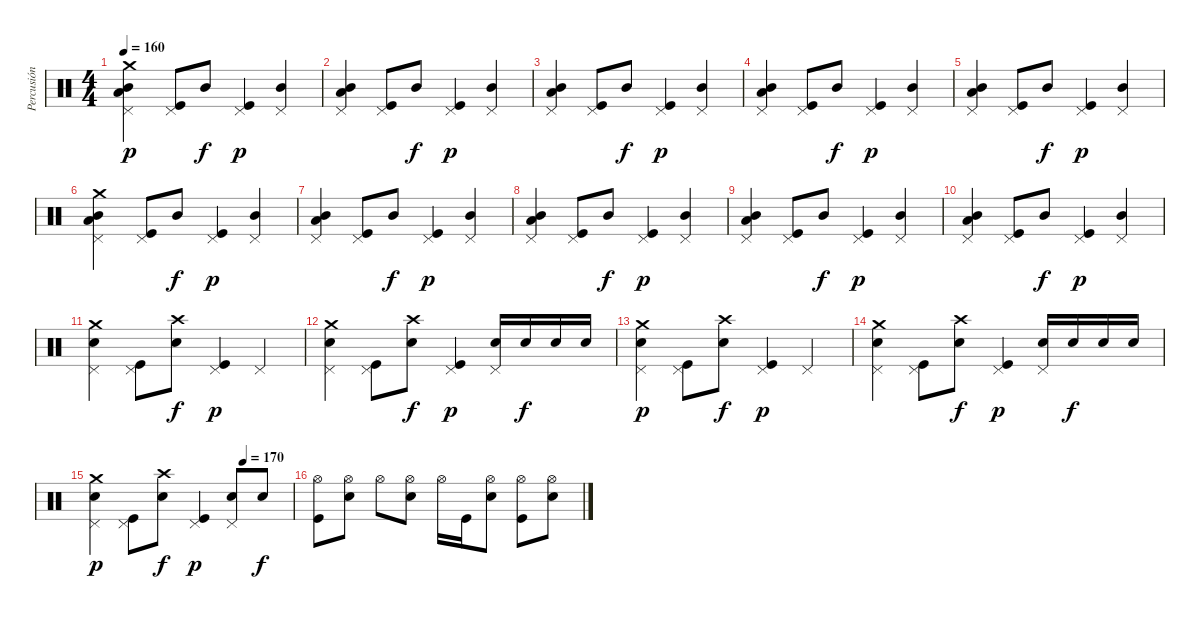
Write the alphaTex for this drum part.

\track ("Percusión" "Percusión") {instrument percussion}
\staff {score}
\articulation defaults
\ts (4 4)
\tempo 160
\clef neutral
\ks c
("Crash medium (hit)" "Pedal Hi-Hat (hit)" "Mid Tom (hit)" "Low Tom (hit)").4{dy p} ("Pedal Hi-Hat (hit)" "Kick (hit)").8 "Mid Tom (hit)".8{dy f} ("Pedal Hi-Hat (hit)" "Kick (hit)").4{dy p} ("Pedal Hi-Hat (hit)" "Mid Tom (hit)").4 |
("Pedal Hi-Hat (hit)" "Mid Tom (hit)" "Low Tom (hit)").4 ("Pedal Hi-Hat (hit)" "Kick (hit)").8 "Mid Tom (hit)".8{dy f} ("Pedal Hi-Hat (hit)" "Kick (hit)").4{dy p} ("Pedal Hi-Hat (hit)" "Mid Tom (hit)").4 |
("Pedal Hi-Hat (hit)" "Mid Tom (hit)" "Low Tom (hit)").4 ("Pedal Hi-Hat (hit)" "Kick (hit)").8 "Mid Tom (hit)".8{dy f} ("Pedal Hi-Hat (hit)" "Kick (hit)").4{dy p} ("Pedal Hi-Hat (hit)" "Mid Tom (hit)").4 |
("Pedal Hi-Hat (hit)" "Mid Tom (hit)" "Low Tom (hit)").4 ("Pedal Hi-Hat (hit)" "Kick (hit)").8 "Mid Tom (hit)".8{dy f} ("Pedal Hi-Hat (hit)" "Kick (hit)").4{dy p} ("Pedal Hi-Hat (hit)" "Mid Tom (hit)").4 |
("Pedal Hi-Hat (hit)" "Mid Tom (hit)" "Low Tom (hit)").4 ("Pedal Hi-Hat (hit)" "Kick (hit)").8 "Mid Tom (hit)".8{dy f} ("Pedal Hi-Hat (hit)" "Kick (hit)").4{dy p} ("Pedal Hi-Hat (hit)" "Mid Tom (hit)").4 |
("Crash medium (hit)" "Pedal Hi-Hat (hit)" "Mid Tom (hit)" "Low Tom (hit)").4 ("Pedal Hi-Hat (hit)" "Kick (hit)").8 "Mid Tom (hit)".8{dy f} ("Pedal Hi-Hat (hit)" "Kick (hit)").4{dy p} ("Pedal Hi-Hat (hit)" "Mid Tom (hit)").4 |
("Pedal Hi-Hat (hit)" "Mid Tom (hit)" "Low Tom (hit)").4 ("Pedal Hi-Hat (hit)" "Kick (hit)").8 "Mid Tom (hit)".8{dy f} ("Pedal Hi-Hat (hit)" "Kick (hit)").4{dy p} ("Pedal Hi-Hat (hit)" "Mid Tom (hit)").4 |
("Pedal Hi-Hat (hit)" "Mid Tom (hit)" "Low Tom (hit)").4 ("Pedal Hi-Hat (hit)" "Kick (hit)").8 "Mid Tom (hit)".8{dy f} ("Pedal Hi-Hat (hit)" "Kick (hit)").4{dy p} ("Pedal Hi-Hat (hit)" "Mid Tom (hit)").4 |
("Pedal Hi-Hat (hit)" "Mid Tom (hit)" "Low Tom (hit)").4 ("Pedal Hi-Hat (hit)" "Kick (hit)").8 "Mid Tom (hit)".8{dy f} ("Pedal Hi-Hat (hit)" "Kick (hit)").4{dy p} ("Pedal Hi-Hat (hit)" "Mid Tom (hit)").4 |
("Pedal Hi-Hat (hit)" "Mid Tom (hit)" "Low Tom (hit)").4 ("Pedal Hi-Hat (hit)" "Kick (hit)").8 "Mid Tom (hit)".8{dy f} ("Pedal Hi-Hat (hit)" "Kick (hit)").4{dy p} ("Pedal Hi-Hat (hit)" "Mid Tom (hit)").4 |
("Crash medium (hit)" "Pedal Hi-Hat (hit)" "Snare (hit) 2").4 ("Pedal Hi-Hat (hit)" "Kick (hit)").8 ("Crash high (hit)" "Snare (hit) 2").8{dy f} ("Pedal Hi-Hat (hit)" "Kick (hit)").4{dy p} "Pedal Hi-Hat (hit)".4 |
("Crash medium (hit)" "Pedal Hi-Hat (hit)" "Snare (hit) 2").4 ("Pedal Hi-Hat (hit)" "Kick (hit)").8 ("Crash high (hit)" "Snare (hit) 2").8{dy f} ("Pedal Hi-Hat (hit)" "Kick (hit)").4{dy p} ("Pedal Hi-Hat (hit)" "Snare (hit) 2").16 "Snare (hit) 2".16{dy f} "Snare (hit) 2".16 "Snare (hit) 2".16 |
("Crash medium (hit)" "Pedal Hi-Hat (hit)" "Snare (hit) 2").4{dy p} ("Pedal Hi-Hat (hit)" "Kick (hit)").8 ("Crash high (hit)" "Snare (hit) 2").8{dy f} ("Pedal Hi-Hat (hit)" "Kick (hit)").4{dy p} "Pedal Hi-Hat (hit)".4 |
("Crash medium (hit)" "Pedal Hi-Hat (hit)" "Snare (hit) 2").4 ("Pedal Hi-Hat (hit)" "Kick (hit)").8 ("Crash high (hit)" "Snare (hit) 2").8{dy f} ("Pedal Hi-Hat (hit)" "Kick (hit)").4{dy p} ("Pedal Hi-Hat (hit)" "Snare (hit) 2").16 "Snare (hit) 2".16{dy f} "Snare (hit) 2".16 "Snare (hit) 2".16 |
\tempo (170 0.75)
("Crash medium (hit)" "Pedal Hi-Hat (hit)" "Snare (hit) 2").4{dy p} ("Pedal Hi-Hat (hit)" "Kick (hit)").8 ("Crash high (hit)" "Snare (hit) 2").8{dy f} ("Pedal Hi-Hat (hit)" "Kick (hit)").4{dy p} ("Pedal Hi-Hat (hit)" "Snare (hit) 2").8 "Snare (hit) 2".8{dy f} |
("Hi-Hat (open)" "Kick (hit)").8 ("Hi-Hat (open)" "Snare (hit) 2").8 "Hi-Hat (open)".8 ("Hi-Hat (open)" "Snare (hit) 2").8 "Hi-Hat (open)".16 "Kick (hit)".16 ("Hi-Hat (open)" "Snare (hit) 2").8 ("Hi-Hat (open)" "Kick (hit)").8 ("Hi-Hat (open)" "Snare (hit) 2").8
